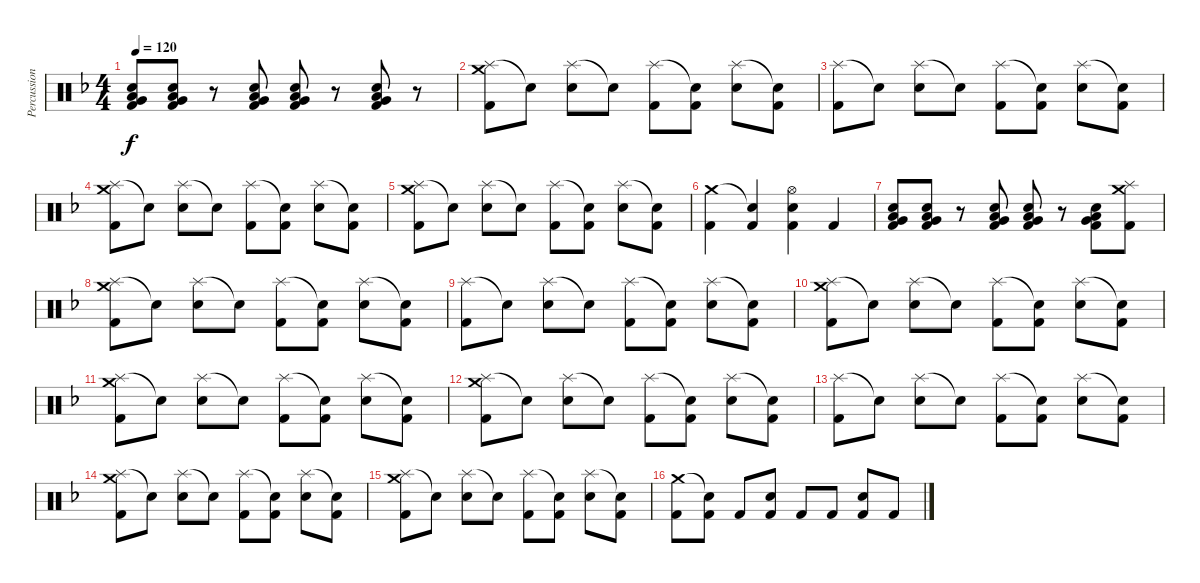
\track ("Percussion" "Percussion") {instrument percussion}
\staff {score}
\articulation defaults
\ts (4 4)
\tempo 120
\clef neutral
\ks f
("Electric Snare (hit)" "Low Floor Tom (hit)" "Very Low Tom (hit)" "Kick (hit) 2").8{dy f} ("Electric Snare (hit)" "Low Floor Tom (hit)" "Very Low Tom (hit)" "Kick (hit) 2").8 r.8 ("Electric Snare (hit)" "Low Floor Tom (hit)" "Very Low Tom (hit)" "Kick (hit) 2").8 ("Electric Snare (hit)" "Low Floor Tom (hit)" "Very Low Tom (hit)" "Kick (hit) 2").8 r.8 ("Electric Snare (hit)" "Low Floor Tom (hit)" "Very Low Tom (hit)" "Kick (hit) 2").8 r.8 |
("Splash (hit)" "Crash medium (hit)" "Kick (hit) 2").8 "Snare (hit)"{t}.8 ("Splash (hit)" "Electric Snare (hit)").8 "Snare (hit)"{t}.8 ("Splash (hit)" "Kick (hit) 2").8 ("Snare (hit)"{t} "Kick (hit) 2").8 ("Splash (hit)" "Electric Snare (hit)").8 ("Snare (hit)"{t} "Kick (hit) 2").8 |
("Splash (hit)" "Kick (hit) 2").8 "Snare (hit)"{t}.8 ("Splash (hit)" "Electric Snare (hit)").8 "Snare (hit)"{t}.8 ("Splash (hit)" "Kick (hit) 2").8 ("Snare (hit)"{t} "Kick (hit) 2").8 ("Splash (hit)" "Electric Snare (hit)").8 ("Snare (hit)"{t} "Kick (hit) 2").8 |
("Splash (hit)" "Crash medium (hit)" "Kick (hit) 2").8 "Snare (hit)"{t}.8 ("Splash (hit)" "Electric Snare (hit)").8 "Snare (hit)"{t}.8 ("Splash (hit)" "Kick (hit) 2").8 ("Snare (hit)"{t} "Kick (hit) 2").8 ("Splash (hit)" "Electric Snare (hit)").8 ("Snare (hit)"{t} "Kick (hit) 2").8 |
("Splash (hit)" "Crash medium (hit)" "Kick (hit) 2").8 "Snare (hit)"{t}.8 ("Splash (hit)" "Electric Snare (hit)").8 "Snare (hit)"{t}.8 ("Splash (hit)" "Kick (hit) 2").8 ("Snare (hit)"{t} "Kick (hit) 2").8 ("Splash (hit)" "Electric Snare (hit)").8 ("Snare (hit)"{t} "Kick (hit) 2").8 |
("Crash medium (hit)" "Kick (hit) 2").4 ("Snare (hit)"{t} "Kick (hit) 2").4 ("Hi-Hat (open)" "Electric Snare (hit)" "Kick (hit) 2").4 "Kick (hit) 2".4 |
("Electric Snare (hit)" "Low Floor Tom (hit)" "Very Low Tom (hit)" "Kick (hit) 2").8 ("Electric Snare (hit)" "Low Floor Tom (hit)" "Very Low Tom (hit)" "Kick (hit) 2").8 r.8 ("Electric Snare (hit)" "Low Floor Tom (hit)" "Very Low Tom (hit)" "Kick (hit) 2").8 ("Electric Snare (hit)" "Low Floor Tom (hit)" "Very Low Tom (hit)" "Kick (hit) 2").8 r.8 ("Electric Snare (hit)" "Low Floor Tom (hit)" "Very Low Tom (hit)" "Kick (hit) 2").8 ("Splash (hit)" "Crash medium (hit)" "Kick (hit) 2").8 |
("Splash (hit)" "Crash medium (hit)" "Kick (hit) 2").8 "Snare (hit)"{t}.8 ("Splash (hit)" "Electric Snare (hit)").8 "Snare (hit)"{t}.8 ("Splash (hit)" "Kick (hit) 2").8 ("Snare (hit)"{t} "Kick (hit) 2").8 ("Splash (hit)" "Electric Snare (hit)").8 ("Snare (hit)"{t} "Kick (hit) 2").8 |
("Splash (hit)" "Kick (hit) 2").8 "Snare (hit)"{t}.8 ("Splash (hit)" "Electric Snare (hit)").8 "Snare (hit)"{t}.8 ("Splash (hit)" "Kick (hit) 2").8 ("Snare (hit)"{t} "Kick (hit) 2").8 ("Splash (hit)" "Electric Snare (hit)").8 ("Snare (hit)"{t} "Kick (hit) 2").8 |
("Splash (hit)" "Crash medium (hit)" "Kick (hit) 2").8 "Snare (hit)"{t}.8 ("Splash (hit)" "Electric Snare (hit)").8 "Snare (hit)"{t}.8 ("Splash (hit)" "Kick (hit) 2").8 ("Snare (hit)"{t} "Kick (hit) 2").8 ("Splash (hit)" "Electric Snare (hit)").8 ("Snare (hit)"{t} "Kick (hit) 2").8 |
("Splash (hit)" "Crash medium (hit)" "Kick (hit) 2").8 "Snare (hit)"{t}.8 ("Splash (hit)" "Electric Snare (hit)").8 "Snare (hit)"{t}.8 ("Splash (hit)" "Kick (hit) 2").8 ("Snare (hit)"{t} "Kick (hit) 2").8 ("Splash (hit)" "Electric Snare (hit)").8 ("Snare (hit)"{t} "Kick (hit) 2").8 |
("Splash (hit)" "Crash medium (hit)" "Kick (hit) 2").8 "Snare (hit)"{t}.8 ("Splash (hit)" "Electric Snare (hit)").8 "Snare (hit)"{t}.8 ("Splash (hit)" "Kick (hit) 2").8 ("Snare (hit)"{t} "Kick (hit) 2").8 ("Splash (hit)" "Electric Snare (hit)").8 ("Snare (hit)"{t} "Kick (hit) 2").8 |
("Splash (hit)" "Kick (hit) 2").8 "Snare (hit)"{t}.8 ("Splash (hit)" "Electric Snare (hit)").8 "Snare (hit)"{t}.8 ("Splash (hit)" "Kick (hit) 2").8 ("Snare (hit)"{t} "Kick (hit) 2").8 ("Splash (hit)" "Electric Snare (hit)").8 ("Snare (hit)"{t} "Kick (hit) 2").8 |
("Splash (hit)" "Crash medium (hit)" "Kick (hit) 2").8 "Snare (hit)"{t}.8 ("Splash (hit)" "Electric Snare (hit)").8 "Snare (hit)"{t}.8 ("Splash (hit)" "Kick (hit) 2").8 ("Snare (hit)"{t} "Kick (hit) 2").8 ("Splash (hit)" "Electric Snare (hit)").8 ("Snare (hit)"{t} "Kick (hit) 2").8 |
("Splash (hit)" "Crash medium (hit)" "Kick (hit) 2").8 "Snare (hit)"{t}.8 ("Splash (hit)" "Electric Snare (hit)").8 "Snare (hit)"{t}.8 ("Splash (hit)" "Kick (hit) 2").8 ("Snare (hit)"{t} "Kick (hit) 2").8 ("Splash (hit)" "Electric Snare (hit)").8 ("Snare (hit)"{t} "Kick (hit) 2").8 |
("Crash medium (hit)" "Kick (hit) 2").8 ("Snare (hit)"{t} "Kick (hit) 2").8 "Kick (hit) 2".8 ("Electric Snare (hit)" "Kick (hit) 2").8 "Kick (hit) 2".8 "Kick (hit) 2".8 ("Electric Snare (hit)" "Kick (hit) 2").8 "Kick (hit) 2".8
